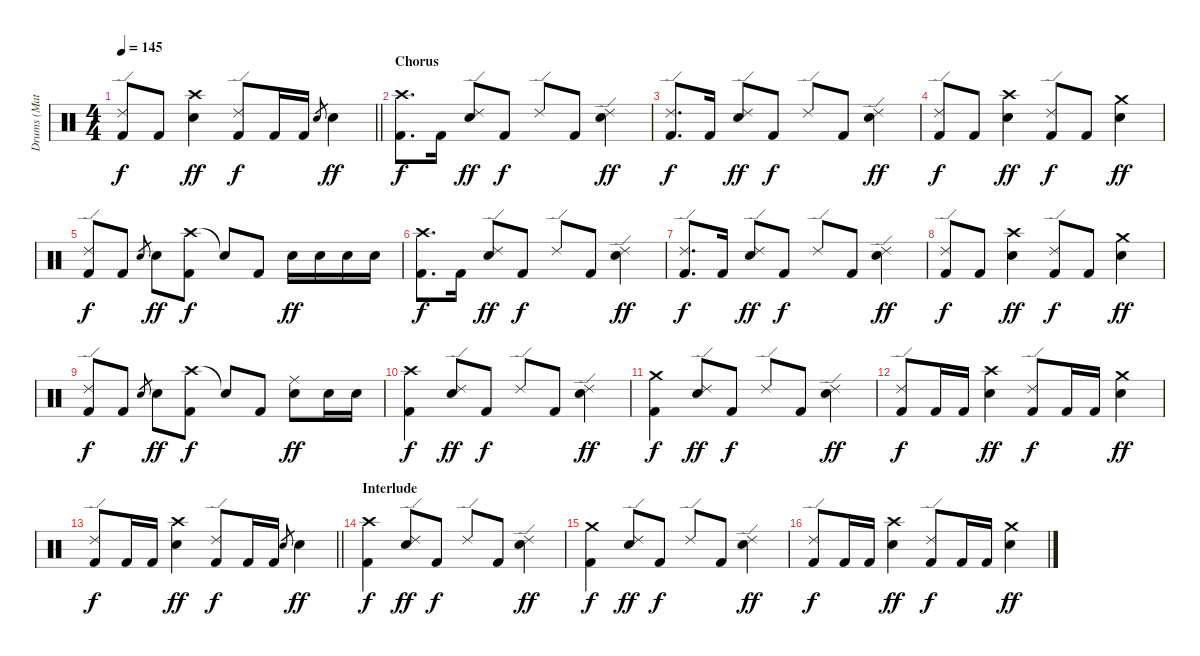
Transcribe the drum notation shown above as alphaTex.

\track ("Drums (Matt)" "Drums (Mat") {instrument percussion}
\staff {score}
\articulation defaults
\ts (4 4)
\tempo 145
\clef neutral
\barLineRight lightlight
\ks c
("Ride (edge) 2" "Kick (hit) 2").8{dy f} "Kick (hit) 2".8 ("Crash high (hit)" "Snare (hit) 2").4{dy ff} ("Ride (edge) 2" "Kick (hit) 2").8{dy f} "Kick (hit) 2".16 "Kick (hit) 2".16 "Snare (hit) 2".8{gr} "Snare (hit) 2".4{dy ff} |
\section ("" "Chorus")
("Crash high (hit)" "Kick (hit) 2").8{d dy f} "Kick (hit) 2".16 ("Ride (edge) 2" "Snare (hit) 2").8{dy ff} "Kick (hit) 2".8{dy f} "Ride (edge) 2".8 "Kick (hit) 2".8 ("Ride (edge) 2" "Snare (hit) 2").4{dy ff} |
("Ride (edge) 2" "Kick (hit) 2").8{d dy f} "Kick (hit) 2".16 ("Ride (edge) 2" "Snare (hit) 2").8{dy ff} "Kick (hit) 2".8{dy f} "Ride (edge) 2".8 "Kick (hit) 2".8 ("Ride (edge) 2" "Snare (hit) 2").4{dy ff} |
("Ride (edge) 2" "Kick (hit) 2").8{dy f} "Kick (hit) 2".8 ("Crash high (hit)" "Snare (hit) 2").4{dy ff} ("Ride (edge) 2" "Kick (hit) 2").8{dy f} "Kick (hit) 2".8 ("Crash medium (hit)" "Snare (hit) 2").4{dy ff} |
("Ride (edge) 2" "Kick (hit) 2").8{dy f} "Kick (hit) 2".8 "Snare (hit) 2".8{gr} "Snare (hit) 2".8{dy ff} ("Crash high (hit)" "Kick (hit) 2").8{dy f} "Snare (hit)"{t}.8 "Kick (hit) 2".8 "Snare (hit) 2".16{dy ff} "Snare (hit) 2".16 "Snare (hit) 2".16 "Snare (hit) 2".16 |
("Crash high (hit)" "Kick (hit) 2").8{d dy f} "Kick (hit) 2".16 ("Ride (edge) 2" "Snare (hit) 2").8{dy ff} "Kick (hit) 2".8{dy f} "Ride (edge) 2".8 "Kick (hit) 2".8 ("Ride (edge) 2" "Snare (hit) 2").4{dy ff} |
("Ride (edge) 2" "Kick (hit) 2").8{d dy f} "Kick (hit) 2".16 ("Ride (edge) 2" "Snare (hit) 2").8{dy ff} "Kick (hit) 2".8{dy f} "Ride (edge) 2".8 "Kick (hit) 2".8 ("Ride (edge) 2" "Snare (hit) 2").4{dy ff} |
("Ride (edge) 2" "Kick (hit) 2").8{dy f} "Kick (hit) 2".8 ("Crash high (hit)" "Snare (hit) 2").4{dy ff} ("Ride (edge) 2" "Kick (hit) 2").8{dy f} "Kick (hit) 2".8 ("Crash medium (hit)" "Snare (hit) 2").4{dy ff} |
("Ride (edge) 2" "Kick (hit) 2").8{dy f} "Kick (hit) 2".8 "Snare (hit) 2".8{gr} "Snare (hit) 2".8{dy ff} ("Crash high (hit)" "Kick (hit) 2").8{dy f} "Snare (hit)"{t}.8 "Kick (hit) 2".8 ("Ride (middle)" "Snare (hit) 2").8{dy ff} "Snare (hit) 2".16 "Snare (hit) 2".16 |
("Crash high (hit)" "Kick (hit) 2").4{dy f} ("Ride (edge) 2" "Snare (hit) 2").8{dy ff} "Kick (hit) 2".8{dy f} "Ride (edge) 2".8 "Kick (hit) 2".8 ("Ride (edge) 2" "Snare (hit) 2").4{dy ff} |
("Crash medium (hit)" "Kick (hit) 2").4{dy f} ("Ride (edge) 2" "Snare (hit) 2").8{dy ff} "Kick (hit) 2".8{dy f} "Ride (edge) 2".8 "Kick (hit) 2".8 ("Ride (edge) 2" "Snare (hit) 2").4{dy ff} |
("Ride (edge) 2" "Kick (hit) 2").8{dy f} "Kick (hit) 2".16 "Kick (hit) 2".16 ("Crash high (hit)" "Snare (hit) 2").4{dy ff} ("Ride (edge) 2" "Kick (hit) 2").8{dy f} "Kick (hit) 2".16 "Kick (hit) 2".16 ("Crash medium (hit)" "Snare (hit) 2").4{dy ff} |
\barLineRight lightlight
("Ride (edge) 2" "Kick (hit) 2").8{dy f} "Kick (hit) 2".16 "Kick (hit) 2".16 ("Crash high (hit)" "Snare (hit) 2").4{dy ff} ("Ride (edge) 2" "Kick (hit) 2").8{dy f} "Kick (hit) 2".16 "Kick (hit) 2".16 "Snare (hit) 2".8{gr} "Snare (hit) 2".4{dy ff} |
\section ("" "Interlude")
("Crash high (hit)" "Kick (hit) 2").4{dy f} ("Ride (edge) 2" "Snare (hit) 2").8{dy ff} "Kick (hit) 2".8{dy f} "Ride (edge) 2".8 "Kick (hit) 2".8 ("Ride (edge) 2" "Snare (hit) 2").4{dy ff} |
("Crash medium (hit)" "Kick (hit) 2").4{dy f} ("Ride (edge) 2" "Snare (hit) 2").8{dy ff} "Kick (hit) 2".8{dy f} "Ride (edge) 2".8 "Kick (hit) 2".8 ("Ride (edge) 2" "Snare (hit) 2").4{dy ff} |
("Ride (edge) 2" "Kick (hit) 2").8{dy f} "Kick (hit) 2".16 "Kick (hit) 2".16 ("Crash high (hit)" "Snare (hit) 2").4{dy ff} ("Ride (edge) 2" "Kick (hit) 2").8{dy f} "Kick (hit) 2".16 "Kick (hit) 2".16 ("Crash medium (hit)" "Snare (hit) 2").4{dy ff}
